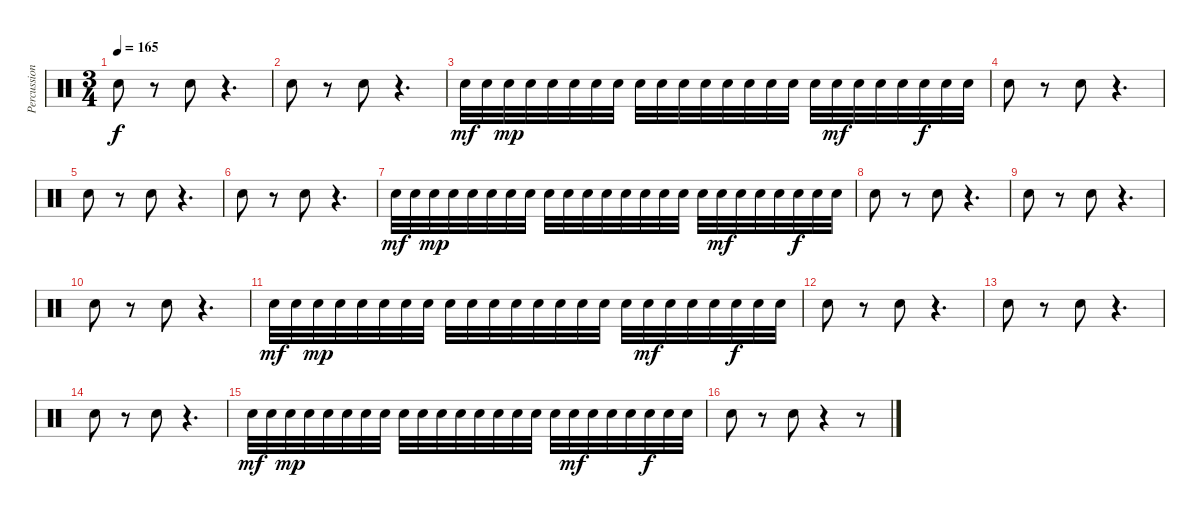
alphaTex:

\track ("Percussion" "Percussion") {instrument percussion}
\staff {score}
\articulation defaults
\ts (3 4)
\tempo 165
\clef neutral
\ks c "Electric Snare (hit)".8{dy f}
r.8 "Electric Snare (hit)".8 r.4{d} |
"Electric Snare (hit)".8 r.8 "Electric Snare (hit)".8 r.4{d} |
"Electric Snare (hit)".32{dy mf} "Electric Snare (hit)".32 "Electric Snare (hit)".32{dy mp} "Electric Snare (hit)".32 "Electric Snare (hit)".32 "Electric Snare (hit)".32 "Electric Snare (hit)".32 "Electric Snare (hit)".32 "Electric Snare (hit)".32 "Electric Snare (hit)".32 "Electric Snare (hit)".32 "Electric Snare (hit)".32 "Electric Snare (hit)".32 "Electric Snare (hit)".32 "Electric Snare (hit)".32 "Electric Snare (hit)".32 "Electric Snare (hit)".32 "Electric Snare (hit)".32{dy mf} "Electric Snare (hit)".32 "Electric Snare (hit)".32 "Electric Snare (hit)".32 "Electric Snare (hit)".32{dy f} "Electric Snare (hit)".32 "Electric Snare (hit)".32 |
"Electric Snare (hit)".8 r.8 "Electric Snare (hit)".8 r.4{d} |
"Electric Snare (hit)".8 r.8 "Electric Snare (hit)".8 r.4{d} |
"Electric Snare (hit)".8 r.8 "Electric Snare (hit)".8 r.4{d} |
"Electric Snare (hit)".32{dy mf} "Electric Snare (hit)".32 "Electric Snare (hit)".32{dy mp} "Electric Snare (hit)".32 "Electric Snare (hit)".32 "Electric Snare (hit)".32 "Electric Snare (hit)".32 "Electric Snare (hit)".32 "Electric Snare (hit)".32 "Electric Snare (hit)".32 "Electric Snare (hit)".32 "Electric Snare (hit)".32 "Electric Snare (hit)".32 "Electric Snare (hit)".32 "Electric Snare (hit)".32 "Electric Snare (hit)".32 "Electric Snare (hit)".32 "Electric Snare (hit)".32{dy mf} "Electric Snare (hit)".32 "Electric Snare (hit)".32 "Electric Snare (hit)".32 "Electric Snare (hit)".32{dy f} "Electric Snare (hit)".32 "Electric Snare (hit)".32 |
"Electric Snare (hit)".8 r.8 "Electric Snare (hit)".8 r.4{d} |
"Electric Snare (hit)".8 r.8 "Electric Snare (hit)".8 r.4{d} |
"Electric Snare (hit)".8 r.8 "Electric Snare (hit)".8 r.4{d} |
"Electric Snare (hit)".32{dy mf} "Electric Snare (hit)".32 "Electric Snare (hit)".32{dy mp} "Electric Snare (hit)".32 "Electric Snare (hit)".32 "Electric Snare (hit)".32 "Electric Snare (hit)".32 "Electric Snare (hit)".32 "Electric Snare (hit)".32 "Electric Snare (hit)".32 "Electric Snare (hit)".32 "Electric Snare (hit)".32 "Electric Snare (hit)".32 "Electric Snare (hit)".32 "Electric Snare (hit)".32 "Electric Snare (hit)".32 "Electric Snare (hit)".32 "Electric Snare (hit)".32{dy mf} "Electric Snare (hit)".32 "Electric Snare (hit)".32 "Electric Snare (hit)".32 "Electric Snare (hit)".32{dy f} "Electric Snare (hit)".32 "Electric Snare (hit)".32 |
"Electric Snare (hit)".8 r.8 "Electric Snare (hit)".8 r.4{d} |
"Electric Snare (hit)".8 r.8 "Electric Snare (hit)".8 r.4{d} |
"Electric Snare (hit)".8 r.8 "Electric Snare (hit)".8 r.4{d} |
"Electric Snare (hit)".32{dy mf} "Electric Snare (hit)".32 "Electric Snare (hit)".32{dy mp} "Electric Snare (hit)".32 "Electric Snare (hit)".32 "Electric Snare (hit)".32 "Electric Snare (hit)".32 "Electric Snare (hit)".32 "Electric Snare (hit)".32 "Electric Snare (hit)".32 "Electric Snare (hit)".32 "Electric Snare (hit)".32 "Electric Snare (hit)".32 "Electric Snare (hit)".32 "Electric Snare (hit)".32 "Electric Snare (hit)".32 "Electric Snare (hit)".32 "Electric Snare (hit)".32{dy mf} "Electric Snare (hit)".32 "Electric Snare (hit)".32 "Electric Snare (hit)".32 "Electric Snare (hit)".32{dy f} "Electric Snare (hit)".32 "Electric Snare (hit)".32 |
"Electric Snare (hit)".8 r.8 "Electric Snare (hit)".8 r.4 r.8
